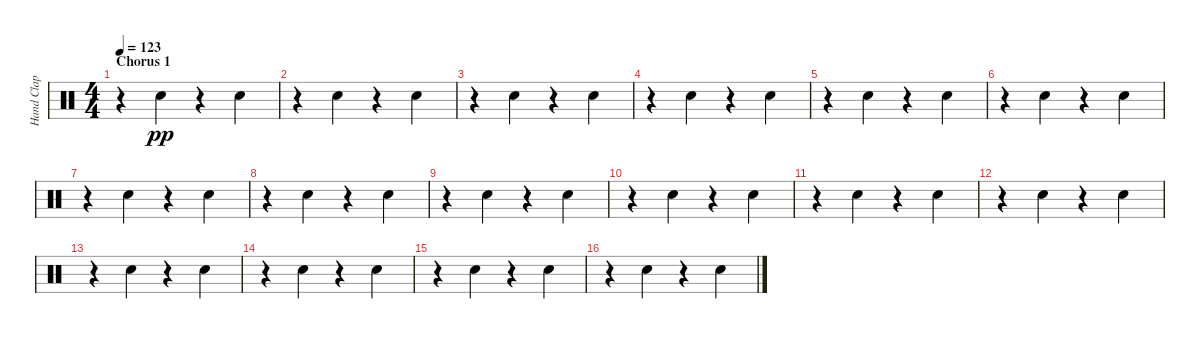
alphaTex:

\track ("Hand Clap" "Hand Clap") {instrument percussion}
\staff {score}
\articulation defaults
\ts (4 4)
\section ("" "Chorus 1")
\tempo 123
\clef neutral
\ks c
r.4{dy pp} "Hand Clap (hit)".4 r.4 "Hand Clap (hit)".4 |
r.4 "Hand Clap (hit)".4 r.4 "Hand Clap (hit)".4 |
r.4 "Hand Clap (hit)".4 r.4 "Hand Clap (hit)".4 |
r.4 "Hand Clap (hit)".4 r.4 "Hand Clap (hit)".4 |
r.4 "Hand Clap (hit)".4 r.4 "Hand Clap (hit)".4 |
r.4 "Hand Clap (hit)".4 r.4 "Hand Clap (hit)".4 |
r.4 "Hand Clap (hit)".4 r.4 "Hand Clap (hit)".4 |
r.4 "Hand Clap (hit)".4 r.4 "Hand Clap (hit)".4 |
r.4 "Hand Clap (hit)".4 r.4 "Hand Clap (hit)".4 |
r.4 "Hand Clap (hit)".4 r.4 "Hand Clap (hit)".4 |
r.4 "Hand Clap (hit)".4 r.4 "Hand Clap (hit)".4 |
r.4 "Hand Clap (hit)".4 r.4 "Hand Clap (hit)".4 |
r.4 "Hand Clap (hit)".4 r.4 "Hand Clap (hit)".4 |
r.4 "Hand Clap (hit)".4 r.4 "Hand Clap (hit)".4 |
r.4 "Hand Clap (hit)".4 r.4 "Hand Clap (hit)".4 |
r.4 "Hand Clap (hit)".4 r.4 "Hand Clap (hit)".4
